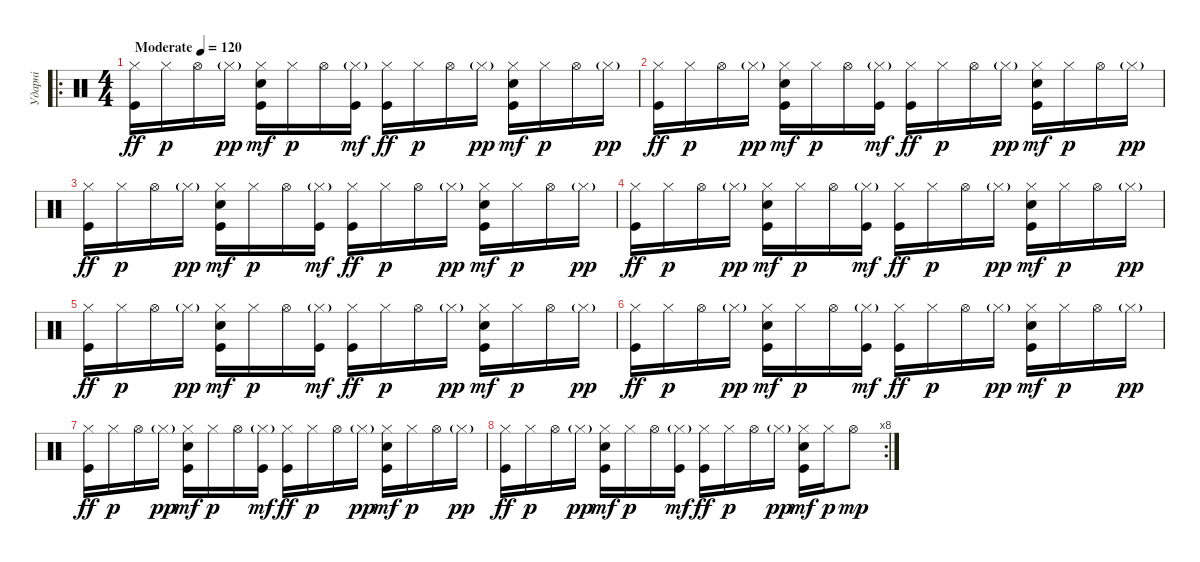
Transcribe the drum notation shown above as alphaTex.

\track ("Ударні" "Ударні") {instrument percussion}
\staff {score}
\articulation defaults
\ro
\ts (4 4)
\tempo (120 "Moderate")
\clef neutral
\ks c
("Hi-Hat (closed)" "Kick (hit)").16{dy ff} "Hi-Hat (closed)".16{dy p} "Hi-Hat (open)".16 "Hi-Hat (closed)"{g}.16{dy pp} ("Hi-Hat (closed)" "Snare (hit) 2" "Kick (hit)").16{dy mf} "Hi-Hat (closed)".16{dy p} "Hi-Hat (open)".16 ("Hi-Hat (closed)"{g} "Kick (hit)").16{dy mf} ("Hi-Hat (closed)" "Kick (hit)").16{dy ff} "Hi-Hat (closed)".16{dy p} "Hi-Hat (open)".16 "Hi-Hat (closed)"{g}.16{dy pp} ("Hi-Hat (closed)" "Snare (hit) 2" "Kick (hit)").16{dy mf} "Hi-Hat (closed)".16{dy p} "Hi-Hat (open)".16 "Hi-Hat (closed)"{g}.16{dy pp} |
("Hi-Hat (closed)" "Kick (hit)").16{dy ff} "Hi-Hat (closed)".16{dy p} "Hi-Hat (open)".16 "Hi-Hat (closed)"{g}.16{dy pp} ("Hi-Hat (closed)" "Snare (hit) 2" "Kick (hit)").16{dy mf} "Hi-Hat (closed)".16{dy p} "Hi-Hat (open)".16 ("Hi-Hat (closed)"{g} "Kick (hit)").16{dy mf} ("Hi-Hat (closed)" "Kick (hit)").16{dy ff} "Hi-Hat (closed)".16{dy p} "Hi-Hat (open)".16 "Hi-Hat (closed)"{g}.16{dy pp} ("Hi-Hat (closed)" "Snare (hit) 2" "Kick (hit)").16{dy mf} "Hi-Hat (closed)".16{dy p} "Hi-Hat (open)".16 "Hi-Hat (closed)"{g}.16{dy pp} |
("Hi-Hat (closed)" "Kick (hit)").16{dy ff} "Hi-Hat (closed)".16{dy p} "Hi-Hat (open)".16 "Hi-Hat (closed)"{g}.16{dy pp} ("Hi-Hat (closed)" "Snare (hit) 2" "Kick (hit)").16{dy mf} "Hi-Hat (closed)".16{dy p} "Hi-Hat (open)".16 ("Hi-Hat (closed)"{g} "Kick (hit)").16{dy mf} ("Hi-Hat (closed)" "Kick (hit)").16{dy ff} "Hi-Hat (closed)".16{dy p} "Hi-Hat (open)".16 "Hi-Hat (closed)"{g}.16{dy pp} ("Hi-Hat (closed)" "Snare (hit) 2" "Kick (hit)").16{dy mf} "Hi-Hat (closed)".16{dy p} "Hi-Hat (open)".16 "Hi-Hat (closed)"{g}.16{dy pp} |
("Hi-Hat (closed)" "Kick (hit)").16{dy ff} "Hi-Hat (closed)".16{dy p} "Hi-Hat (open)".16 "Hi-Hat (closed)"{g}.16{dy pp} ("Hi-Hat (closed)" "Snare (hit) 2" "Kick (hit)").16{dy mf} "Hi-Hat (closed)".16{dy p} "Hi-Hat (open)".16 ("Hi-Hat (closed)"{g} "Kick (hit)").16{dy mf} ("Hi-Hat (closed)" "Kick (hit)").16{dy ff} "Hi-Hat (closed)".16{dy p} "Hi-Hat (open)".16 "Hi-Hat (closed)"{g}.16{dy pp} ("Hi-Hat (closed)" "Snare (hit) 2" "Kick (hit)").16{dy mf} "Hi-Hat (closed)".16{dy p} "Hi-Hat (open)".16 "Hi-Hat (closed)"{g}.16{dy pp} |
("Hi-Hat (closed)" "Kick (hit)").16{dy ff} "Hi-Hat (closed)".16{dy p} "Hi-Hat (open)".16 "Hi-Hat (closed)"{g}.16{dy pp} ("Hi-Hat (closed)" "Snare (hit) 2" "Kick (hit)").16{dy mf} "Hi-Hat (closed)".16{dy p} "Hi-Hat (open)".16 ("Hi-Hat (closed)"{g} "Kick (hit)").16{dy mf} ("Hi-Hat (closed)" "Kick (hit)").16{dy ff} "Hi-Hat (closed)".16{dy p} "Hi-Hat (open)".16 "Hi-Hat (closed)"{g}.16{dy pp} ("Hi-Hat (closed)" "Snare (hit) 2" "Kick (hit)").16{dy mf} "Hi-Hat (closed)".16{dy p} "Hi-Hat (open)".16 "Hi-Hat (closed)"{g}.16{dy pp} |
("Hi-Hat (closed)" "Kick (hit)").16{dy ff} "Hi-Hat (closed)".16{dy p} "Hi-Hat (open)".16 "Hi-Hat (closed)"{g}.16{dy pp} ("Hi-Hat (closed)" "Snare (hit) 2" "Kick (hit)").16{dy mf} "Hi-Hat (closed)".16{dy p} "Hi-Hat (open)".16 ("Hi-Hat (closed)"{g} "Kick (hit)").16{dy mf} ("Hi-Hat (closed)" "Kick (hit)").16{dy ff} "Hi-Hat (closed)".16{dy p} "Hi-Hat (open)".16 "Hi-Hat (closed)"{g}.16{dy pp} ("Hi-Hat (closed)" "Snare (hit) 2" "Kick (hit)").16{dy mf} "Hi-Hat (closed)".16{dy p} "Hi-Hat (open)".16 "Hi-Hat (closed)"{g}.16{dy pp} |
("Hi-Hat (closed)" "Kick (hit)").16{dy ff} "Hi-Hat (closed)".16{dy p} "Hi-Hat (open)".16 "Hi-Hat (closed)"{g}.16{dy pp} ("Hi-Hat (closed)" "Snare (hit) 2" "Kick (hit)").16{dy mf} "Hi-Hat (closed)".16{dy p} "Hi-Hat (open)".16 ("Hi-Hat (closed)"{g} "Kick (hit)").16{dy mf} ("Hi-Hat (closed)" "Kick (hit)").16{dy ff} "Hi-Hat (closed)".16{dy p} "Hi-Hat (open)".16 "Hi-Hat (closed)"{g}.16{dy pp} ("Hi-Hat (closed)" "Snare (hit) 2" "Kick (hit)").16{dy mf} "Hi-Hat (closed)".16{dy p} "Hi-Hat (open)".16 "Hi-Hat (closed)"{g}.16{dy pp} |
\rc 8
("Hi-Hat (closed)" "Kick (hit)").16{dy ff} "Hi-Hat (closed)".16{dy p} "Hi-Hat (open)".16 "Hi-Hat (closed)"{g}.16{dy pp} ("Hi-Hat (closed)" "Snare (hit) 2" "Kick (hit)").16{dy mf} "Hi-Hat (closed)".16{dy p} "Hi-Hat (open)".16 ("Hi-Hat (closed)"{g} "Kick (hit)").16{dy mf} ("Hi-Hat (closed)" "Kick (hit)").16{dy ff} "Hi-Hat (closed)".16{dy p} "Hi-Hat (open)".16 "Hi-Hat (closed)"{g}.16{dy pp} ("Hi-Hat (closed)" "Snare (hit) 2" "Kick (hit)").16{dy mf} "Hi-Hat (closed)".16{dy p} "Hi-Hat (open)".8{dy mp}
